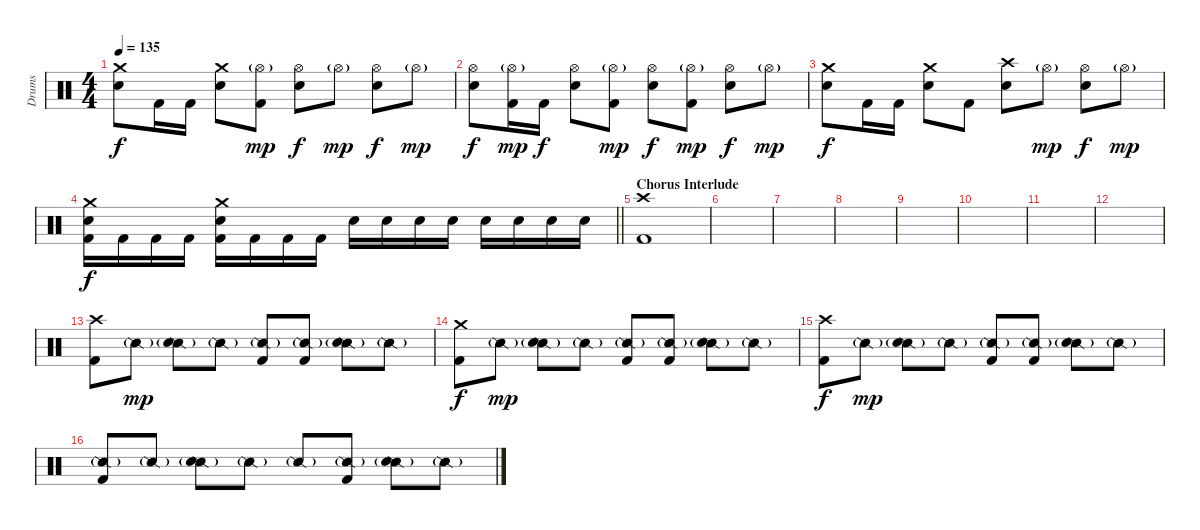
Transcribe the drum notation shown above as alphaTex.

\track ("Drums" "Drums") {instrument percussion}
\staff {score}
\articulation defaults
\ts (4 4)
\tempo 135
\clef neutral
\ks c
("Crash medium (hit)" "Electric Snare (hit)").8{dy f} "Kick (hit) 2".16 "Kick (hit) 2".16 ("Crash medium (hit)" "Electric Snare (hit)").8 ("Hi-Hat (open)"{g} "Kick (hit) 2").8{dy mp} ("Hi-Hat (open)" "Electric Snare (hit)").8{dy f} "Hi-Hat (open)"{g}.8{dy mp} ("Hi-Hat (open)" "Electric Snare (hit)").8{dy f} "Hi-Hat (open)"{g}.8{dy mp} |
("Hi-Hat (open)" "Electric Snare (hit)").8{dy f} ("Hi-Hat (open)"{g} "Kick (hit) 2").16{dy mp} "Kick (hit) 2".16{dy f} ("Hi-Hat (open)" "Electric Snare (hit)").8 ("Hi-Hat (open)"{g} "Kick (hit) 2").8{dy mp} ("Hi-Hat (open)" "Electric Snare (hit)").8{dy f} ("Hi-Hat (open)"{g} "Kick (hit) 2").8{dy mp} ("Hi-Hat (open)" "Electric Snare (hit)").8{dy f} "Hi-Hat (open)"{g}.8{dy mp} |
("Crash medium (hit)" "Electric Snare (hit)").8{dy f} "Kick (hit) 2".16 "Kick (hit) 2".16 ("Crash medium (hit)" "Electric Snare (hit)").8 "Kick (hit) 2".8 ("Crash high (hit)" "Electric Snare (hit)").8 "Hi-Hat (open)"{g}.8{dy mp} ("Hi-Hat (open)" "Electric Snare (hit)").8{dy f} "Hi-Hat (open)"{g}.8{dy mp} |
\barLineRight lightlight
("Crash medium (hit)" "Electric Snare (hit)" "Kick (hit) 2").16{dy f} "Kick (hit) 2".16 "Kick (hit) 2".16 "Kick (hit) 2".16 ("Crash medium (hit)" "Electric Snare (hit)" "Kick (hit) 2").16 "Kick (hit) 2".16 "Kick (hit) 2".16 "Kick (hit) 2".16 "Electric Snare (hit)".16 "Electric Snare (hit)".16 "Electric Snare (hit)".16 "Electric Snare (hit)".16 "Electric Snare (hit)".16 "Electric Snare (hit)".16 "Electric Snare (hit)".16 "Electric Snare (hit)".16 |
\section ("" "Chorus Interlude")
("Crash high (hit)" "Kick (hit) 2").1 |
|
|
|
|
|
|
|
("Crash high (hit)" "Kick (hit) 2").8 "Snare (side stick) 2"{g}.8{dy mp} ("Snare (side stick) 2"{g} "Snare (hit) 2").8 "Snare (side stick) 2"{g}.8 ("Snare (side stick) 2"{g} "Kick (hit) 2").8 ("Snare (side stick) 2"{g} "Kick (hit) 2").8 ("Snare (side stick) 2"{g} "Snare (hit) 2").8 "Snare (side stick) 2"{g}.8 |
("Crash medium (hit)" "Kick (hit) 2").8{dy f} "Snare (side stick) 2"{g}.8{dy mp} ("Snare (side stick) 2"{g} "Snare (hit) 2").8 "Snare (side stick) 2"{g}.8 ("Snare (side stick) 2"{g} "Kick (hit) 2").8 ("Snare (side stick) 2"{g} "Kick (hit) 2").8 ("Snare (side stick) 2"{g} "Snare (hit) 2").8 "Snare (side stick) 2"{g}.8 |
("Crash high (hit)" "Kick (hit) 2").8{dy f} "Snare (side stick) 2"{g}.8{dy mp} ("Snare (side stick) 2"{g} "Snare (hit) 2").8 "Snare (side stick) 2"{g}.8 ("Snare (side stick) 2"{g} "Kick (hit) 2").8 ("Snare (side stick) 2"{g} "Kick (hit) 2").8 ("Snare (side stick) 2"{g} "Snare (hit) 2").8 "Snare (side stick) 2"{g}.8 |
("Snare (side stick) 2"{g} "Kick (hit) 2").8 "Snare (side stick) 2"{g}.8 ("Snare (side stick) 2"{g} "Snare (hit) 2").8 "Snare (side stick) 2"{g}.8 "Snare (side stick) 2"{g}.8 ("Snare (side stick) 2"{g} "Kick (hit) 2").8 ("Snare (side stick) 2"{g} "Snare (hit) 2").8 "Snare (side stick) 2"{g}.8
